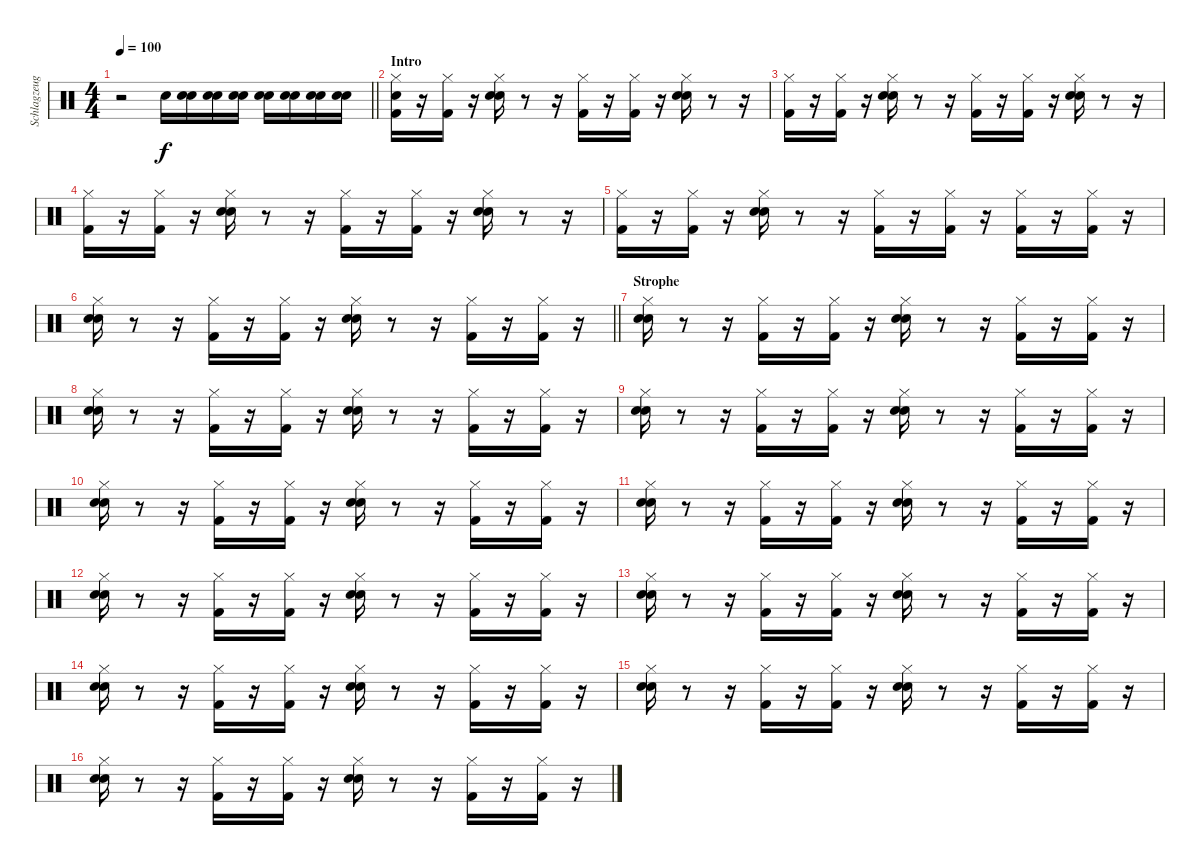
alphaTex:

\track ("Schlagzeug" "Schlagzeug") {instrument percussion}
\staff {score}
\articulation defaults
\ts (4 4)
\tempo 100
\clef neutral
\barLineRight lightlight
\ks c
r.2{dy f} "Snare (hit) 2".16 ("Snare (hit)" "Snare (hit) 2").16 ("Snare (hit)" "Snare (hit) 2").16 ("Snare (hit)" "Snare (hit) 2").16 ("Snare (hit)" "Snare (hit) 2").16 ("Snare (hit)" "Snare (hit) 2").16 ("Snare (hit)" "Snare (hit) 2").16 ("Snare (hit)" "Snare (hit) 2").16 |
\section ("" "Intro")
("Snare (hit)" "Kick (hit) 2" "Hi-Hat (closed)").16 r.16 ("Kick (hit) 2" "Hi-Hat (closed)").16 r.16 ("Hand Clap (hit)" "Hi-Hat (closed)" "Snare (hit) 2").16 r.8 r.16 ("Hi-Hat (closed)" "Kick (hit) 2").16 r.16 ("Hi-Hat (closed)" "Kick (hit) 2").16 r.16 ("Snare (hit) 2" "Hand Clap (hit)" "Hi-Hat (closed)").16 r.8 r.16 |
("Kick (hit) 2" "Hi-Hat (closed)").16 r.16 ("Hi-Hat (closed)" "Kick (hit) 2").16 r.16 ("Hand Clap (hit)" "Hi-Hat (closed)" "Snare (hit) 2").16 r.8 r.16 ("Kick (hit) 2" "Hi-Hat (closed)").16 r.16 ("Hi-Hat (closed)" "Kick (hit) 2").16 r.16 ("Snare (hit) 2" "Hand Clap (hit)" "Hi-Hat (closed)").16 r.8 r.16 |
("Hi-Hat (closed)" "Kick (hit) 2").16 r.16 ("Hi-Hat (closed)" "Kick (hit) 2").16 r.16 ("Snare (hit) 2" "Hand Clap (hit)" "Hi-Hat (closed)").16 r.8 r.16 ("Hi-Hat (closed)" "Kick (hit) 2").16 r.16 ("Kick (hit) 2" "Hi-Hat (closed)").16 r.16 ("Snare (hit) 2" "Hand Clap (hit)" "Hi-Hat (closed)").16 r.8 r.16 |
("Kick (hit) 2" "Hi-Hat (closed)").16 r.16 ("Hi-Hat (closed)" "Kick (hit) 2").16 r.16 ("Snare (hit) 2" "Hi-Hat (closed)" "Hand Clap (hit)").16 r.8 r.16 ("Kick (hit) 2" "Hi-Hat (closed)").16 r.16 ("Hi-Hat (closed)" "Kick (hit) 2").16 r.16 ("Hi-Hat (closed)" "Kick (hit) 2").16 r.16 ("Hi-Hat (closed)" "Kick (hit) 2").16 r.16 |
\barLineRight lightlight
("Hi-Hat (closed)" "Hand Clap (hit)" "Snare (hit) 2").16 r.8 r.16 ("Hi-Hat (closed)" "Kick (hit) 2").16 r.16 ("Hi-Hat (closed)" "Kick (hit) 2").16 r.16 ("Hand Clap (hit)" "Snare (hit) 2" "Hi-Hat (closed)").16 r.8 r.16 ("Kick (hit) 2" "Hi-Hat (closed)").16 r.16 ("Kick (hit) 2" "Hi-Hat (closed)").16 r.16 |
\section ("" "Strophe")
("Hand Clap (hit)" "Hi-Hat (closed)" "Snare (hit) 2").16 r.8 r.16 ("Kick (hit) 2" "Hi-Hat (closed)").16 r.16 ("Hi-Hat (closed)" "Kick (hit) 2").16 r.16 ("Snare (hit) 2" "Hi-Hat (closed)" "Hand Clap (hit)").16 r.8 r.16 ("Kick (hit) 2" "Hi-Hat (closed)").16 r.16 ("Kick (hit) 2" "Hi-Hat (closed)").16 r.16 |
("Hi-Hat (closed)" "Snare (hit) 2" "Hand Clap (hit)").16 r.8 r.16 ("Kick (hit) 2" "Hi-Hat (closed)").16 r.16 ("Kick (hit) 2" "Hi-Hat (closed)").16 r.16 ("Hi-Hat (closed)" "Hand Clap (hit)" "Snare (hit) 2").16 r.8 r.16 ("Hi-Hat (closed)" "Kick (hit) 2").16 r.16 ("Hi-Hat (closed)" "Kick (hit) 2").16 r.16 |
("Hand Clap (hit)" "Hi-Hat (closed)" "Snare (hit) 2").16 r.8 r.16 ("Hi-Hat (closed)" "Kick (hit) 2").16 r.16 ("Kick (hit) 2" "Hi-Hat (closed)").16 r.16 ("Hi-Hat (closed)" "Snare (hit) 2" "Hand Clap (hit)").16 r.8 r.16 ("Kick (hit) 2" "Hi-Hat (closed)").16 r.16 ("Kick (hit) 2" "Hi-Hat (closed)").16 r.16 |
("Hi-Hat (closed)" "Snare (hit) 2" "Hand Clap (hit)").16 r.8 r.16 ("Kick (hit) 2" "Hi-Hat (closed)").16 r.16 ("Hi-Hat (closed)" "Kick (hit) 2").16 r.16 ("Hand Clap (hit)" "Hi-Hat (closed)" "Snare (hit) 2").16 r.8 r.16 ("Kick (hit) 2" "Hi-Hat (closed)").16 r.16 ("Kick (hit) 2" "Hi-Hat (closed)").16 r.16 |
("Hi-Hat (closed)" "Hand Clap (hit)" "Snare (hit) 2").16 r.8 r.16 ("Hi-Hat (closed)" "Kick (hit) 2").16 r.16 ("Kick (hit) 2" "Hi-Hat (closed)").16 r.16 ("Snare (hit) 2" "Hi-Hat (closed)" "Hand Clap (hit)").16 r.8 r.16 ("Hi-Hat (closed)" "Kick (hit) 2").16 r.16 ("Hi-Hat (closed)" "Kick (hit) 2").16 r.16 |
("Hand Clap (hit)" "Snare (hit) 2" "Hi-Hat (closed)").16 r.8 r.16 ("Kick (hit) 2" "Hi-Hat (closed)").16 r.16 ("Hi-Hat (closed)" "Kick (hit) 2").16 r.16 ("Hand Clap (hit)" "Snare (hit) 2" "Hi-Hat (closed)").16 r.8 r.16 ("Kick (hit) 2" "Hi-Hat (closed)").16 r.16 ("Kick (hit) 2" "Hi-Hat (closed)").16 r.16 |
("Snare (hit) 2" "Hi-Hat (closed)" "Hand Clap (hit)").16 r.8 r.16 ("Hi-Hat (closed)" "Kick (hit) 2").16 r.16 ("Hi-Hat (closed)" "Kick (hit) 2").16 r.16 ("Hi-Hat (closed)" "Hand Clap (hit)" "Snare (hit) 2").16 r.8 r.16 ("Hi-Hat (closed)" "Kick (hit) 2").16 r.16 ("Kick (hit) 2" "Hi-Hat (closed)").16 r.16 |
("Hand Clap (hit)" "Snare (hit) 2" "Hi-Hat (closed)").16 r.8 r.16 ("Hi-Hat (closed)" "Kick (hit) 2").16 r.16 ("Kick (hit) 2" "Hi-Hat (closed)").16 r.16 ("Hi-Hat (closed)" "Snare (hit) 2" "Hand Clap (hit)").16 r.8 r.16 ("Kick (hit) 2" "Hi-Hat (closed)").16 r.16 ("Hi-Hat (closed)" "Kick (hit) 2").16 r.16 |
("Snare (hit) 2" "Hand Clap (hit)" "Hi-Hat (closed)").16 r.8 r.16 ("Kick (hit) 2" "Hi-Hat (closed)").16 r.16 ("Hi-Hat (closed)" "Kick (hit) 2").16 r.16 ("Hi-Hat (closed)" "Hand Clap (hit)" "Snare (hit) 2").16 r.8 r.16 ("Kick (hit) 2" "Hi-Hat (closed)").16 r.16 ("Hi-Hat (closed)" "Kick (hit) 2").16 r.16 |
("Snare (hit) 2" "Hi-Hat (closed)" "Hand Clap (hit)").16 r.8 r.16 ("Hi-Hat (closed)" "Kick (hit) 2").16 r.16 ("Kick (hit) 2" "Hi-Hat (closed)").16 r.16 ("Snare (hit) 2" "Hand Clap (hit)" "Hi-Hat (closed)").16 r.8 r.16 ("Hi-Hat (closed)" "Kick (hit) 2").16 r.16 ("Kick (hit) 2" "Hi-Hat (closed)").16 r.16
